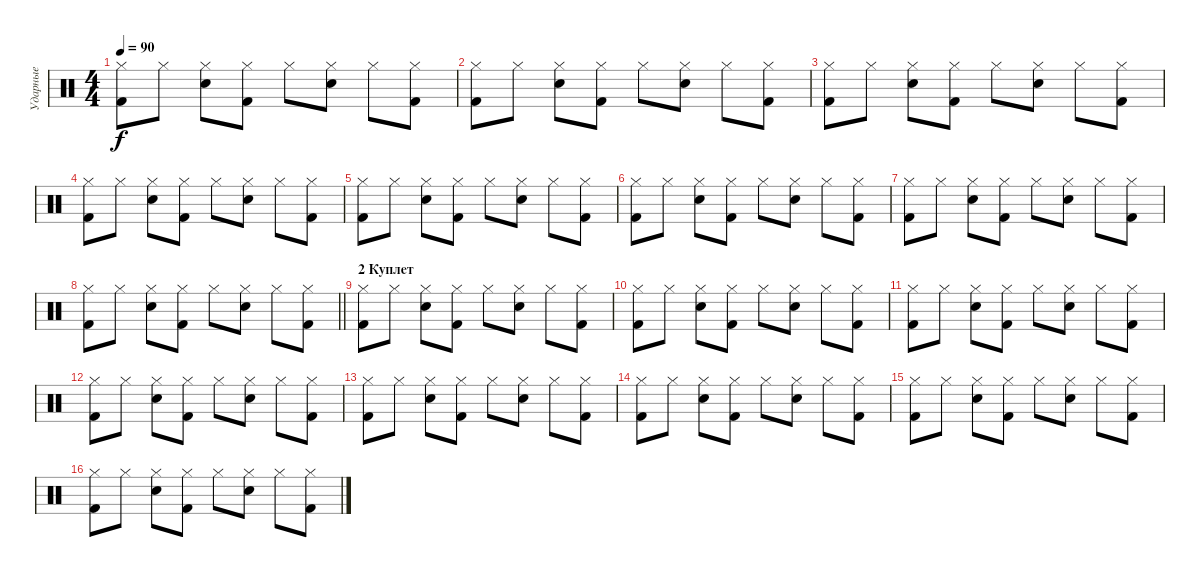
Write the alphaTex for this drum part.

\track ("Ударные" "Ударные") {instrument percussion}
\staff {score}
\articulation defaults
\ts (4 4)
\tempo 90
\clef neutral
\ks c
("Hi-Hat (closed)" "Kick (hit) 2").8{dy f} "Hi-Hat (closed)".8 ("Hi-Hat (closed)" "Electric Snare (hit)").8 ("Hi-Hat (closed)" "Kick (hit) 2").8 "Hi-Hat (closed)".8 ("Hi-Hat (closed)" "Electric Snare (hit)").8 "Hi-Hat (closed)".8 ("Hi-Hat (closed)" "Kick (hit) 2").8 |
("Hi-Hat (closed)" "Kick (hit) 2").8 "Hi-Hat (closed)".8 ("Hi-Hat (closed)" "Electric Snare (hit)").8 ("Hi-Hat (closed)" "Kick (hit) 2").8 "Hi-Hat (closed)".8 ("Hi-Hat (closed)" "Electric Snare (hit)").8 "Hi-Hat (closed)".8 ("Hi-Hat (closed)" "Kick (hit) 2").8 |
("Hi-Hat (closed)" "Kick (hit) 2").8 "Hi-Hat (closed)".8 ("Hi-Hat (closed)" "Electric Snare (hit)").8 ("Hi-Hat (closed)" "Kick (hit) 2").8 "Hi-Hat (closed)".8 ("Hi-Hat (closed)" "Electric Snare (hit)").8 "Hi-Hat (closed)".8 ("Hi-Hat (closed)" "Kick (hit) 2").8 |
("Hi-Hat (closed)" "Kick (hit) 2").8 "Hi-Hat (closed)".8 ("Hi-Hat (closed)" "Electric Snare (hit)").8 ("Hi-Hat (closed)" "Kick (hit) 2").8 "Hi-Hat (closed)".8 ("Hi-Hat (closed)" "Electric Snare (hit)").8 "Hi-Hat (closed)".8 ("Hi-Hat (closed)" "Kick (hit) 2").8 |
("Hi-Hat (closed)" "Kick (hit) 2").8 "Hi-Hat (closed)".8 ("Hi-Hat (closed)" "Electric Snare (hit)").8 ("Hi-Hat (closed)" "Kick (hit) 2").8 "Hi-Hat (closed)".8 ("Hi-Hat (closed)" "Electric Snare (hit)").8 "Hi-Hat (closed)".8 ("Hi-Hat (closed)" "Kick (hit) 2").8 |
("Hi-Hat (closed)" "Kick (hit) 2").8 "Hi-Hat (closed)".8 ("Hi-Hat (closed)" "Electric Snare (hit)").8 ("Hi-Hat (closed)" "Kick (hit) 2").8 "Hi-Hat (closed)".8 ("Hi-Hat (closed)" "Electric Snare (hit)").8 "Hi-Hat (closed)".8 ("Hi-Hat (closed)" "Kick (hit) 2").8 |
("Hi-Hat (closed)" "Kick (hit) 2").8 "Hi-Hat (closed)".8 ("Hi-Hat (closed)" "Electric Snare (hit)").8 ("Hi-Hat (closed)" "Kick (hit) 2").8 "Hi-Hat (closed)".8 ("Hi-Hat (closed)" "Electric Snare (hit)").8 "Hi-Hat (closed)".8 ("Hi-Hat (closed)" "Kick (hit) 2").8 |
\barLineRight lightlight
("Hi-Hat (closed)" "Kick (hit) 2").8 "Hi-Hat (closed)".8 ("Hi-Hat (closed)" "Electric Snare (hit)").8 ("Hi-Hat (closed)" "Kick (hit) 2").8 "Hi-Hat (closed)".8 ("Hi-Hat (closed)" "Electric Snare (hit)").8 "Hi-Hat (closed)".8 ("Hi-Hat (closed)" "Kick (hit) 2").8 |
\section ("" "2 Куплет")
("Hi-Hat (closed)" "Kick (hit) 2").8 "Hi-Hat (closed)".8 ("Hi-Hat (closed)" "Electric Snare (hit)").8 ("Hi-Hat (closed)" "Kick (hit) 2").8 "Hi-Hat (closed)".8 ("Hi-Hat (closed)" "Electric Snare (hit)").8 "Hi-Hat (closed)".8 ("Hi-Hat (closed)" "Kick (hit) 2").8 |
("Hi-Hat (closed)" "Kick (hit) 2").8 "Hi-Hat (closed)".8 ("Hi-Hat (closed)" "Electric Snare (hit)").8 ("Hi-Hat (closed)" "Kick (hit) 2").8 "Hi-Hat (closed)".8 ("Hi-Hat (closed)" "Electric Snare (hit)").8 "Hi-Hat (closed)".8 ("Hi-Hat (closed)" "Kick (hit) 2").8 |
("Hi-Hat (closed)" "Kick (hit) 2").8 "Hi-Hat (closed)".8 ("Hi-Hat (closed)" "Electric Snare (hit)").8 ("Hi-Hat (closed)" "Kick (hit) 2").8 "Hi-Hat (closed)".8 ("Hi-Hat (closed)" "Electric Snare (hit)").8 "Hi-Hat (closed)".8 ("Hi-Hat (closed)" "Kick (hit) 2").8 |
("Hi-Hat (closed)" "Kick (hit) 2").8 "Hi-Hat (closed)".8 ("Hi-Hat (closed)" "Electric Snare (hit)").8 ("Hi-Hat (closed)" "Kick (hit) 2").8 "Hi-Hat (closed)".8 ("Hi-Hat (closed)" "Electric Snare (hit)").8 "Hi-Hat (closed)".8 ("Hi-Hat (closed)" "Kick (hit) 2").8 |
("Hi-Hat (closed)" "Kick (hit) 2").8 "Hi-Hat (closed)".8 ("Hi-Hat (closed)" "Electric Snare (hit)").8 ("Hi-Hat (closed)" "Kick (hit) 2").8 "Hi-Hat (closed)".8 ("Hi-Hat (closed)" "Electric Snare (hit)").8 "Hi-Hat (closed)".8 ("Hi-Hat (closed)" "Kick (hit) 2").8 |
("Hi-Hat (closed)" "Kick (hit) 2").8 "Hi-Hat (closed)".8 ("Hi-Hat (closed)" "Electric Snare (hit)").8 ("Hi-Hat (closed)" "Kick (hit) 2").8 "Hi-Hat (closed)".8 ("Hi-Hat (closed)" "Electric Snare (hit)").8 "Hi-Hat (closed)".8 ("Hi-Hat (closed)" "Kick (hit) 2").8 |
("Hi-Hat (closed)" "Kick (hit) 2").8 "Hi-Hat (closed)".8 ("Hi-Hat (closed)" "Electric Snare (hit)").8 ("Hi-Hat (closed)" "Kick (hit) 2").8 "Hi-Hat (closed)".8 ("Hi-Hat (closed)" "Electric Snare (hit)").8 "Hi-Hat (closed)".8 ("Hi-Hat (closed)" "Kick (hit) 2").8 |
("Hi-Hat (closed)" "Kick (hit) 2").8 "Hi-Hat (closed)".8 ("Hi-Hat (closed)" "Electric Snare (hit)").8 ("Hi-Hat (closed)" "Kick (hit) 2").8 "Hi-Hat (closed)".8 ("Hi-Hat (closed)" "Electric Snare (hit)").8 "Hi-Hat (closed)".8 ("Hi-Hat (closed)" "Kick (hit) 2").8
